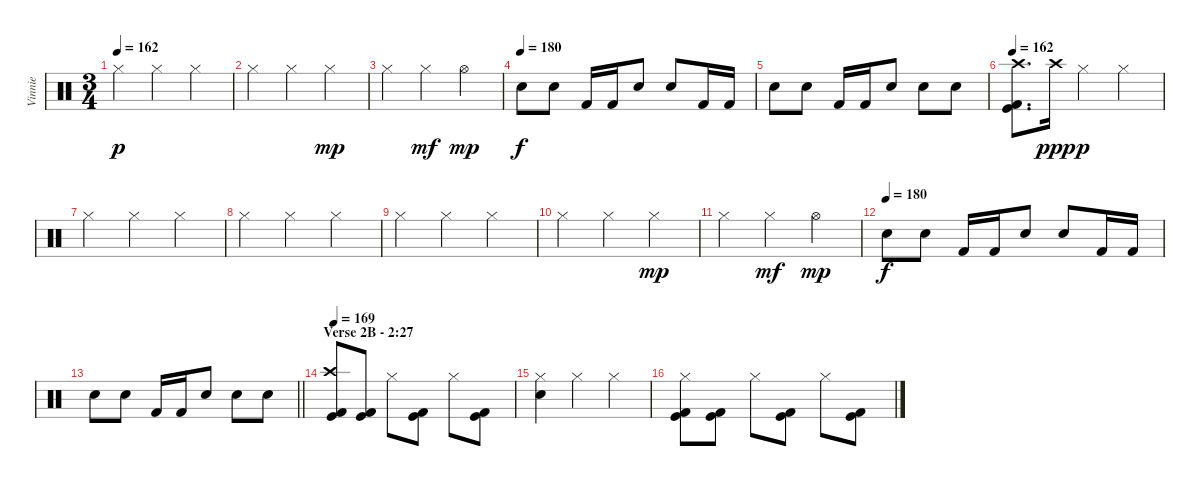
\track ("Vinnie" "Vinnie") {instrument percussion}
\staff {score}
\articulation defaults
\ts (3 4)
\tempo 162
\clef neutral
\ks c "Hi-Hat (closed)".4{dy p} "Hi-Hat (closed)".4 "Hi-Hat (closed)".4
|
"Hi-Hat (closed)".4 "Hi-Hat (closed)".4 "Hi-Hat (closed)".4{dy mp} |
"Hi-Hat (closed)".4 "Hi-Hat (closed)".4{dy mf} "Hi-Hat (open)".4{dy mp} |
\tempo (180)
"Electric Snare (hit)".8{dy f} "Electric Snare (hit)".8 "Kick (hit) 2".16 "Kick (hit) 2".16 "Electric Snare (hit)".8 "Electric Snare (hit)".8 "Kick (hit) 2".16 "Kick (hit) 2".16 |
"Electric Snare (hit)".8 "Electric Snare (hit)".8 "Kick (hit) 2".16 "Kick (hit) 2".16 "Electric Snare (hit)".8 "Electric Snare (hit)".8 "Electric Snare (hit)".8 |
\tempo 162
("Crash high (hit)" "Kick (hit)" "Kick (hit) 2").8{d} "Crash high (hit)".16{dy ppp} "Hi-Hat (closed)".4{dy p} "Hi-Hat (closed)".4 |
"Hi-Hat (closed)".4 "Hi-Hat (closed)".4 "Hi-Hat (closed)".4 |
"Hi-Hat (closed)".4 "Hi-Hat (closed)".4 "Hi-Hat (closed)".4 |
"Hi-Hat (closed)".4 "Hi-Hat (closed)".4 "Hi-Hat (closed)".4 |
"Hi-Hat (closed)".4 "Hi-Hat (closed)".4 "Hi-Hat (closed)".4{dy mp} |
"Hi-Hat (closed)".4 "Hi-Hat (closed)".4{dy mf} "Hi-Hat (open)".4{dy mp} |
\tempo (180)
"Electric Snare (hit)".8{dy f} "Electric Snare (hit)".8 "Kick (hit) 2".16 "Kick (hit) 2".16 "Electric Snare (hit)".8 "Electric Snare (hit)".8 "Kick (hit) 2".16 "Kick (hit) 2".16 |
\barLineRight lightlight "Electric Snare (hit)".8 "Electric Snare (hit)".8 "Kick (hit) 2".16 "Kick (hit) 2".16 "Electric Snare (hit)".8 "Electric Snare (hit)".8 "Electric Snare (hit)".8
|
\section ("" "Verse 2B - 2:27")
\tempo 169
("Crash high (hit)" "Kick (hit)" "Kick (hit) 2").8 ("Kick (hit)" "Kick (hit) 2").8 "Hi-Hat (closed)".8 ("Kick (hit)" "Kick (hit) 2").8 "Hi-Hat (closed)".8 ("Kick (hit)" "Kick (hit) 2").8 |
("Hi-Hat (closed)" "Electric Snare (hit)").4 "Hi-Hat (closed)".4 "Hi-Hat (closed)".4 |
("Hi-Hat (closed)" "Kick (hit)" "Kick (hit) 2").8 ("Kick (hit)" "Kick (hit) 2").8 "Hi-Hat (closed)".8 ("Kick (hit)" "Kick (hit) 2").8 "Hi-Hat (closed)".8 ("Kick (hit)" "Kick (hit) 2").8
